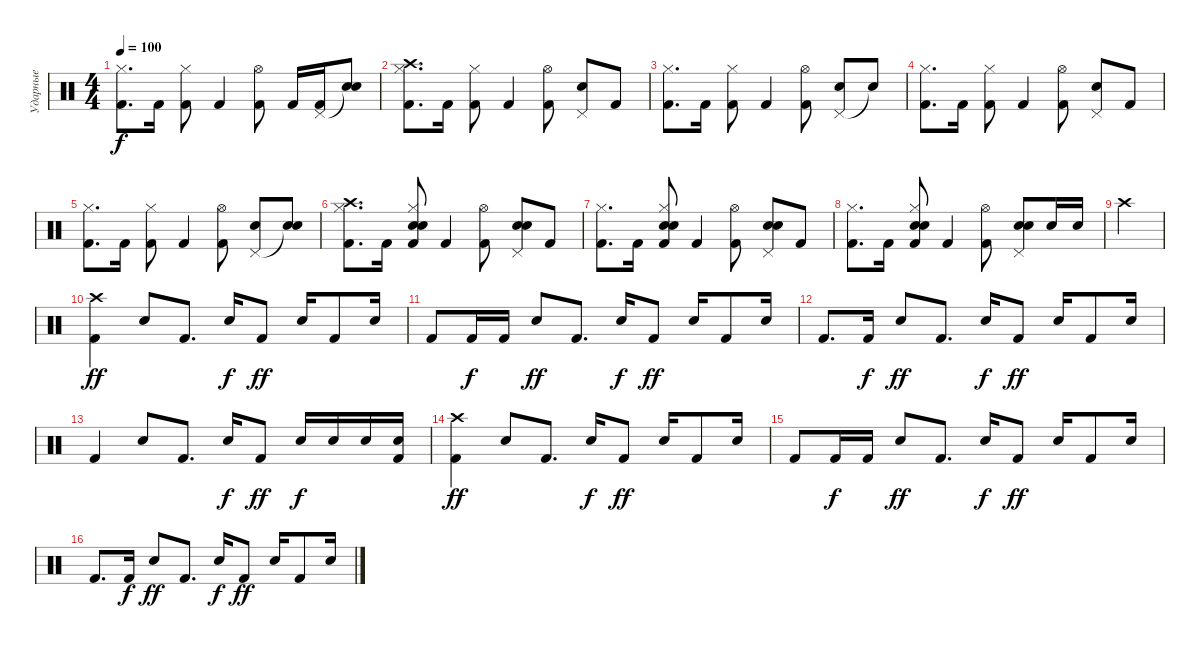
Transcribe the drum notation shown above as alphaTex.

\track ("Ударные" "Ударные") {instrument percussion}
\staff {score}
\articulation defaults
\ts (4 4)
\tempo 100
\clef neutral
\ks c
("Kick (hit) 2" "Hi-Hat (closed)").8{d dy f} "Kick (hit) 2".16 ("Kick (hit) 2" "Hi-Hat (closed)").8 "Kick (hit) 2".4 ("Kick (hit) 2" "Hi-Hat (open)").8 "Kick (hit) 2".16 ("Pedal Hi-Hat (hit)" "Kick (hit) 2").16 ("Snare (hit)"{t} "Snare (hit) 2").8 |
("Crash high (hit)" "Kick (hit) 2" "Hi-Hat (closed)").8{d} "Kick (hit) 2".16 ("Kick (hit) 2" "Hi-Hat (closed)").8 "Kick (hit) 2".4 ("Kick (hit) 2" "Hi-Hat (open)").8 ("Pedal Hi-Hat (hit)" "Snare (hit) 2").8 "Kick (hit) 2".8 |
("Kick (hit) 2" "Hi-Hat (closed)").8{d} "Kick (hit) 2".16 ("Kick (hit) 2" "Hi-Hat (closed)").8 "Kick (hit) 2".4 ("Kick (hit) 2" "Hi-Hat (open)").8 ("Pedal Hi-Hat (hit)" "Snare (hit) 2").8 "Snare (hit)"{t}.8 |
("Kick (hit) 2" "Hi-Hat (closed)").8{d} "Kick (hit) 2".16 ("Kick (hit) 2" "Hi-Hat (closed)").8 "Kick (hit) 2".4 ("Kick (hit) 2" "Hi-Hat (open)").8 ("Pedal Hi-Hat (hit)" "Snare (hit) 2").8 "Kick (hit) 2".8 |
("Kick (hit) 2" "Hi-Hat (closed)").8{d} "Kick (hit) 2".16 ("Kick (hit) 2" "Hi-Hat (closed)").8 "Kick (hit) 2".4 ("Kick (hit) 2" "Hi-Hat (open)").8 ("Pedal Hi-Hat (hit)" "Snare (hit) 2").8 ("Snare (hit)"{t} "Electric Snare (hit)").8 |
("Crash high (hit)" "Kick (hit) 2" "Hi-Hat (closed)").8{d} "Kick (hit) 2".16 ("Kick (hit) 2" "Electric Snare (hit)" "Hi-Hat (closed)" "Electric Snare (hit)").8 "Kick (hit) 2".4 ("Kick (hit) 2" "Hi-Hat (open)").8 ("Electric Snare (hit)" "Pedal Hi-Hat (hit)" "Electric Snare (hit)").8 "Kick (hit) 2".8 |
("Kick (hit) 2" "Hi-Hat (closed)").8{d} "Kick (hit) 2".16 ("Kick (hit) 2" "Electric Snare (hit)" "Hi-Hat (closed)" "Electric Snare (hit)").8 "Kick (hit) 2".4 ("Kick (hit) 2" "Hi-Hat (open)").8 ("Electric Snare (hit)" "Pedal Hi-Hat (hit)" "Electric Snare (hit)").8 "Kick (hit) 2".8 |
("Kick (hit) 2" "Hi-Hat (closed)").8{d} "Kick (hit) 2".16 ("Kick (hit) 2" "Electric Snare (hit)" "Hi-Hat (closed)" "Electric Snare (hit)").8 "Kick (hit) 2".4 ("Kick (hit) 2" "Hi-Hat (open)").8 ("Electric Snare (hit)" "Pedal Hi-Hat (hit)" "Electric Snare (hit)").8 "Snare (hit) 2".16 "Snare (hit) 2".16 |
"Crash high (hit)".4 |
("Crash high (hit)" "Kick (hit) 2").4{dy ff} "Snare (hit) 2".8 "Kick (hit) 2".8{d} "Snare (hit) 2".16{dy f} "Kick (hit) 2".8{dy ff} "Snare (hit) 2".16 "Kick (hit) 2".8 "Snare (hit) 2".16 |
"Kick (hit) 2".8 "Kick (hit) 2".16{dy f} "Kick (hit) 2".16 "Snare (hit) 2".8{dy ff} "Kick (hit) 2".8{d} "Snare (hit) 2".16{dy f} "Kick (hit) 2".8{dy ff} "Snare (hit) 2".16 "Kick (hit) 2".8 "Snare (hit) 2".16 |
"Kick (hit) 2".8{d} "Kick (hit) 2".16{dy f} "Snare (hit) 2".8{dy ff} "Kick (hit) 2".8{d} "Snare (hit) 2".16{dy f} "Kick (hit) 2".8{dy ff} "Snare (hit) 2".16 "Kick (hit) 2".8 "Snare (hit) 2".16 |
"Kick (hit) 2".4 "Snare (hit) 2".8 "Kick (hit) 2".8{d} "Snare (hit) 2".16{dy f} "Kick (hit) 2".8{dy ff} "Electric Snare (hit)".16{dy f} "Electric Snare (hit)".16 "Snare (hit) 2".16 ("Snare (hit) 2" "Kick (hit) 2").16 |
("Crash high (hit)" "Kick (hit) 2").4{dy ff} "Snare (hit) 2".8 "Kick (hit) 2".8{d} "Snare (hit) 2".16{dy f} "Kick (hit) 2".8{dy ff} "Snare (hit) 2".16 "Kick (hit) 2".8 "Snare (hit) 2".16 |
"Kick (hit) 2".8 "Kick (hit) 2".16{dy f} "Kick (hit) 2".16 "Snare (hit) 2".8{dy ff} "Kick (hit) 2".8{d} "Snare (hit) 2".16{dy f} "Kick (hit) 2".8{dy ff} "Snare (hit) 2".16 "Kick (hit) 2".8 "Snare (hit) 2".16 |
"Kick (hit) 2".8{d} "Kick (hit) 2".16{dy f} "Snare (hit) 2".8{dy ff} "Kick (hit) 2".8{d} "Snare (hit) 2".16{dy f} "Kick (hit) 2".8{dy ff} "Snare (hit) 2".16 "Kick (hit) 2".8 "Snare (hit) 2".16
